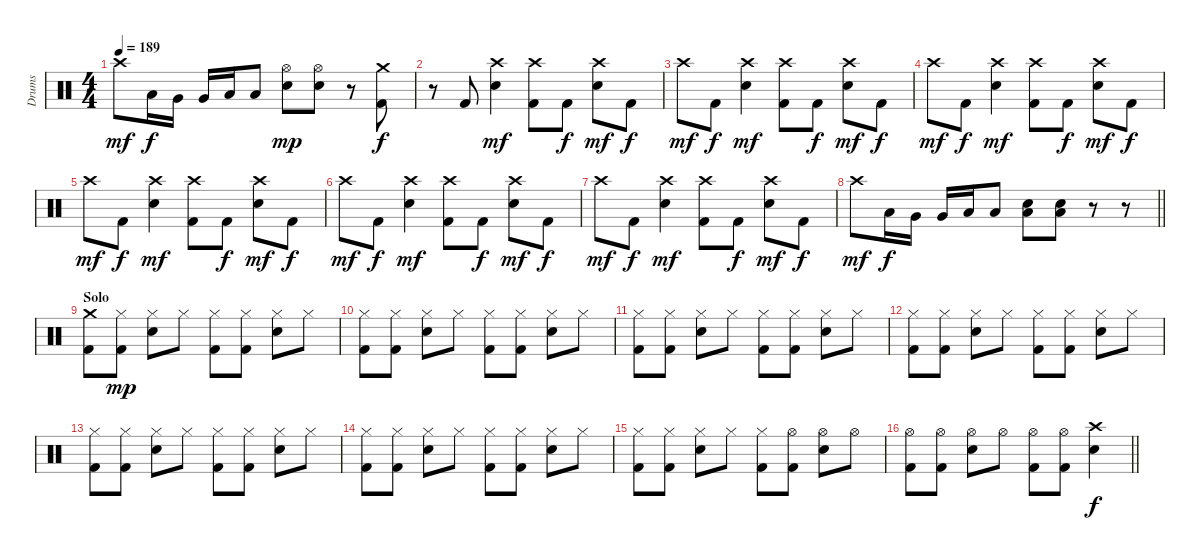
\track ("Drums" "Drums") {instrument percussion}
\staff {score}
\articulation defaults
\ts (4 4)
\tempo 189
\clef neutral
\ks c "Crash high (hit)".8{dy mf} "Low Tom (hit)".16{dy f} "Very Low Tom (hit)".16 "Very Low Tom (hit)".16 "Low Floor Tom (hit)".16 "Low Floor Tom (hit)".8
("Hi-Hat (open)" "Snare (hit) 2").8{dy mp} ("Hi-Hat (open)" "Snare (hit) 2").8 r.8 ("Crash medium (hit)" "Kick (hit) 2").8{dy f} |
r.8 "Kick (hit) 2".8 ("Crash high (hit)" "Snare (hit) 2").4{dy mf} ("Crash high (hit)" "Kick (hit) 2").8 "Kick (hit) 2".8{dy f} ("Crash high (hit)" "Snare (hit) 2").8{dy mf} "Kick (hit) 2".8{dy f} |
"Crash high (hit)".8{dy mf} "Kick (hit) 2".8{dy f} ("Crash high (hit)" "Snare (hit) 2").4{dy mf} ("Crash high (hit)" "Kick (hit) 2").8 "Kick (hit) 2".8{dy f} ("Crash high (hit)" "Snare (hit) 2").8{dy mf} "Kick (hit) 2".8{dy f} |
"Crash high (hit)".8{dy mf} "Kick (hit) 2".8{dy f} ("Crash high (hit)" "Snare (hit) 2").4{dy mf} ("Crash high (hit)" "Kick (hit) 2").8 "Kick (hit) 2".8{dy f} ("Crash high (hit)" "Snare (hit) 2").8{dy mf} "Kick (hit) 2".8{dy f} |
"Crash high (hit)".8{dy mf} "Kick (hit) 2".8{dy f} ("Crash high (hit)" "Snare (hit) 2").4{dy mf} ("Crash high (hit)" "Kick (hit) 2").8 "Kick (hit) 2".8{dy f} ("Crash high (hit)" "Snare (hit) 2").8{dy mf} "Kick (hit) 2".8{dy f} |
"Crash high (hit)".8{dy mf} "Kick (hit) 2".8{dy f} ("Crash high (hit)" "Snare (hit) 2").4{dy mf} ("Crash high (hit)" "Kick (hit) 2").8 "Kick (hit) 2".8{dy f} ("Crash high (hit)" "Snare (hit) 2").8{dy mf} "Kick (hit) 2".8{dy f} |
"Crash high (hit)".8{dy mf} "Kick (hit) 2".8{dy f} ("Crash high (hit)" "Snare (hit) 2").4{dy mf} ("Crash high (hit)" "Kick (hit) 2").8 "Kick (hit) 2".8{dy f} ("Crash high (hit)" "Snare (hit) 2").8{dy mf} "Kick (hit) 2".8{dy f} |
\barLineRight lightlight "Crash high (hit)".8{dy mf} "Low Tom (hit)".16{dy f} "Very Low Tom (hit)".16 "Very Low Tom (hit)".16 "Low Floor Tom (hit)".16 "Low Floor Tom (hit)".8
("Low Floor Tom (hit)" "Snare (hit) 2").8 ("Low Floor Tom (hit)" "Snare (hit) 2").8 r.8 r.8 |
\section ("" "Solo")
("Crash medium (hit)" "Kick (hit) 2").8 ("Hi-Hat (closed)" "Kick (hit) 2").8{dy mp} ("Hi-Hat (closed)" "Snare (hit) 2").8 "Hi-Hat (closed)".8 ("Hi-Hat (closed)" "Kick (hit) 2").8 ("Hi-Hat (closed)" "Kick (hit) 2").8 ("Hi-Hat (closed)" "Snare (hit) 2").8 "Hi-Hat (closed)".8 |
("Hi-Hat (closed)" "Kick (hit) 2").8 ("Hi-Hat (closed)" "Kick (hit) 2").8 ("Hi-Hat (closed)" "Snare (hit) 2").8 "Hi-Hat (closed)".8 ("Hi-Hat (closed)" "Kick (hit) 2").8 ("Hi-Hat (closed)" "Kick (hit) 2").8 ("Hi-Hat (closed)" "Snare (hit) 2").8 "Hi-Hat (closed)".8 |
("Hi-Hat (closed)" "Kick (hit) 2").8 ("Hi-Hat (closed)" "Kick (hit) 2").8 ("Hi-Hat (closed)" "Snare (hit) 2").8 "Hi-Hat (closed)".8 ("Hi-Hat (closed)" "Kick (hit) 2").8 ("Hi-Hat (closed)" "Kick (hit) 2").8 ("Hi-Hat (closed)" "Snare (hit) 2").8 "Hi-Hat (closed)".8 |
("Hi-Hat (closed)" "Kick (hit) 2").8 ("Hi-Hat (closed)" "Kick (hit) 2").8 ("Hi-Hat (closed)" "Snare (hit) 2").8 "Hi-Hat (closed)".8 ("Hi-Hat (closed)" "Kick (hit) 2").8 ("Hi-Hat (closed)" "Kick (hit) 2").8 ("Hi-Hat (closed)" "Snare (hit) 2").8 "Hi-Hat (closed)".8 |
("Hi-Hat (closed)" "Kick (hit) 2").8 ("Hi-Hat (closed)" "Kick (hit) 2").8 ("Hi-Hat (closed)" "Snare (hit) 2").8 "Hi-Hat (closed)".8 ("Hi-Hat (closed)" "Kick (hit) 2").8 ("Hi-Hat (closed)" "Kick (hit) 2").8 ("Hi-Hat (closed)" "Snare (hit) 2").8 "Hi-Hat (closed)".8 |
("Hi-Hat (closed)" "Kick (hit) 2").8 ("Hi-Hat (closed)" "Kick (hit) 2").8 ("Hi-Hat (closed)" "Snare (hit) 2").8 "Hi-Hat (closed)".8 ("Hi-Hat (closed)" "Kick (hit) 2").8 ("Hi-Hat (closed)" "Kick (hit) 2").8 ("Hi-Hat (closed)" "Snare (hit) 2").8 "Hi-Hat (closed)".8 |
("Hi-Hat (closed)" "Kick (hit) 2").8 ("Hi-Hat (closed)" "Kick (hit) 2").8 ("Hi-Hat (closed)" "Snare (hit) 2").8 "Hi-Hat (closed)".8 ("Hi-Hat (closed)" "Kick (hit) 2").8 ("Hi-Hat (open)" "Kick (hit) 2").8 ("Hi-Hat (open)" "Snare (hit) 2").8 "Hi-Hat (open)".8 |
\barLineRight lightlight
("Hi-Hat (open)" "Kick (hit) 2").8 ("Hi-Hat (open)" "Kick (hit) 2").8 ("Hi-Hat (open)" "Snare (hit) 2").8 "Hi-Hat (open)".8 ("Hi-Hat (open)" "Kick (hit) 2").8 ("Hi-Hat (open)" "Kick (hit) 2").8 ("Crash high (hit)" "Snare (hit) 2").4{dy f}
